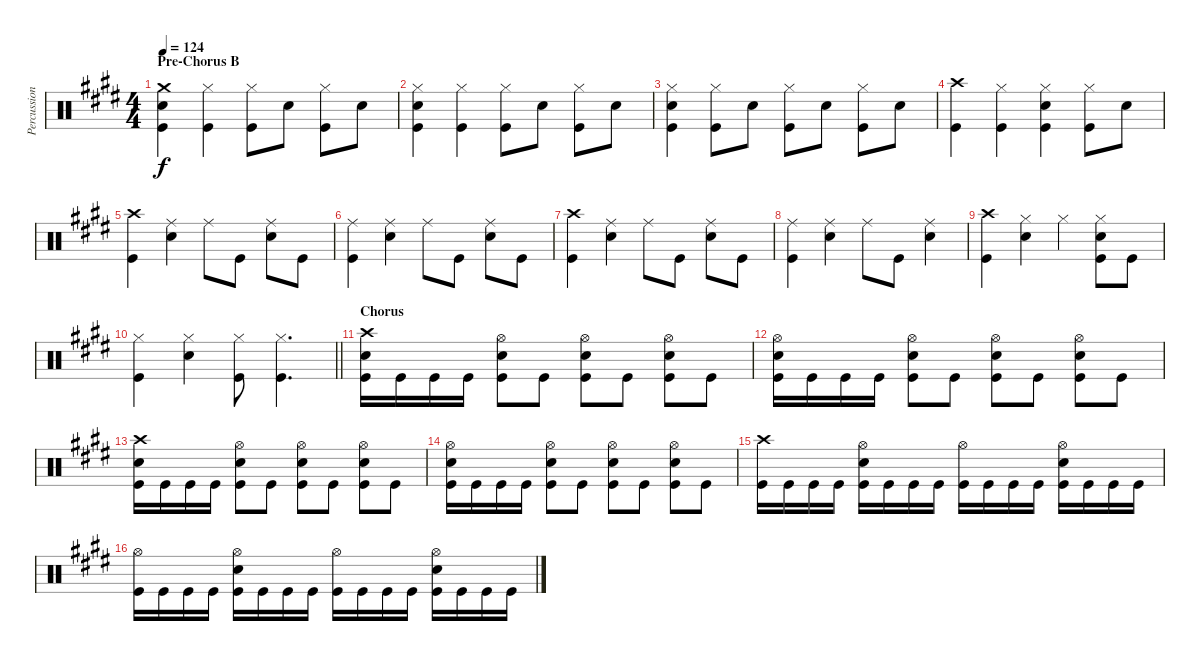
\track ("Percussion" "Percussion") {instrument percussion}
\staff {score}
\articulation defaults
\ts (4 4)
\section ("" "Pre-Chorus B")
\tempo 124
\clef neutral
\ks e
("Crash medium (hit)" "Electric Snare (hit)" "Kick (hit)").4{dy f} ("Hi-Hat (closed)" "Kick (hit)").4 ("Hi-Hat (closed)" "Kick (hit)").8 "Electric Snare (hit)".8 ("Hi-Hat (closed)" "Kick (hit)").8 "Electric Snare (hit)".8 |
("Hi-Hat (closed)" "Electric Snare (hit)" "Kick (hit)").4 ("Hi-Hat (closed)" "Kick (hit)").4 ("Hi-Hat (closed)" "Kick (hit)").8 "Electric Snare (hit)".8 ("Hi-Hat (closed)" "Kick (hit)").8 "Electric Snare (hit)".8 |
("Hi-Hat (closed)" "Electric Snare (hit)" "Kick (hit)").4 ("Hi-Hat (closed)" "Kick (hit)").8 "Electric Snare (hit)".8 ("Hi-Hat (closed)" "Kick (hit)").8 "Electric Snare (hit)".8 ("Hi-Hat (closed)" "Kick (hit)").8 "Electric Snare (hit)".8 |
("Crash high (hit)" "Kick (hit)").4 ("Hi-Hat (closed)" "Kick (hit)").4 ("Hi-Hat (closed)" "Electric Snare (hit)" "Kick (hit)").4 ("Hi-Hat (closed)" "Kick (hit)").8 "Electric Snare (hit)".8 |
("Crash high (hit)" "Kick (hit)").4 ("Ride (middle)" "Electric Snare (hit)").4 "Ride (middle)".8 "Kick (hit)".8 ("Ride (middle)" "Electric Snare (hit)").8 "Kick (hit)".8 |
("Ride (middle)" "Kick (hit)").4 ("Ride (middle)" "Electric Snare (hit)").4 "Ride (middle)".8 "Kick (hit)".8 ("Ride (middle)" "Electric Snare (hit)").8 "Kick (hit)".8 |
("Crash high (hit)" "Kick (hit)").4 ("Ride (middle)" "Electric Snare (hit)").4 "Ride (middle)".8 "Kick (hit)".8 ("Ride (middle)" "Electric Snare (hit)").8 "Kick (hit)".8 |
("Ride (middle)" "Kick (hit)").4 ("Ride (middle)" "Electric Snare (hit)").4 "Ride (middle)".8 "Kick (hit)".8 ("Ride (middle)" "Electric Snare (hit)").4 |
("Crash high (hit)" "Kick (hit)").4 ("Hi-Hat (closed)" "Electric Snare (hit)").4 "Hi-Hat (closed)".4 ("Hi-Hat (closed)" "Electric Snare (hit)" "Kick (hit)").8 "Kick (hit)".8 |
\barLineRight lightlight
("Hi-Hat (closed)" "Kick (hit)").4 ("Hi-Hat (closed)" "Electric Snare (hit)").4 ("Hi-Hat (closed)" "Kick (hit)").8 ("Hi-Hat (closed)" "Kick (hit)").4{d} |
\section ("" "Chorus")
("Crash high (hit)" "Electric Snare (hit)" "Kick (hit)").16 "Kick (hit)".16 "Kick (hit)".16 "Kick (hit)".16 ("Hi-Hat (open)" "Electric Snare (hit)" "Kick (hit)").8 "Kick (hit)".8 ("Hi-Hat (open)" "Electric Snare (hit)" "Kick (hit)").8 "Kick (hit)".8 ("Hi-Hat (open)" "Electric Snare (hit)" "Kick (hit)").8 "Kick (hit)".8 |
("Hi-Hat (open)" "Electric Snare (hit)" "Kick (hit)").16 "Kick (hit)".16 "Kick (hit)".16 "Kick (hit)".16 ("Hi-Hat (open)" "Electric Snare (hit)" "Kick (hit)").8 "Kick (hit)".8 ("Hi-Hat (open)" "Electric Snare (hit)" "Kick (hit)").8 "Kick (hit)".8 ("Hi-Hat (open)" "Electric Snare (hit)" "Kick (hit)").8 "Kick (hit)".8 |
("Crash high (hit)" "Electric Snare (hit)" "Kick (hit)").16 "Kick (hit)".16 "Kick (hit)".16 "Kick (hit)".16 ("Hi-Hat (open)" "Electric Snare (hit)" "Kick (hit)").8 "Kick (hit)".8 ("Hi-Hat (open)" "Electric Snare (hit)" "Kick (hit)").8 "Kick (hit)".8 ("Hi-Hat (open)" "Electric Snare (hit)" "Kick (hit)").8 "Kick (hit)".8 |
("Hi-Hat (open)" "Electric Snare (hit)" "Kick (hit)").16 "Kick (hit)".16 "Kick (hit)".16 "Kick (hit)".16 ("Hi-Hat (open)" "Electric Snare (hit)" "Kick (hit)").8 "Kick (hit)".8 ("Hi-Hat (open)" "Electric Snare (hit)" "Kick (hit)").8 "Kick (hit)".8 ("Hi-Hat (open)" "Electric Snare (hit)" "Kick (hit)").8 "Kick (hit)".8 |
("Crash high (hit)" "Kick (hit)").16 "Kick (hit)".16 "Kick (hit)".16 "Kick (hit)".16 ("Hi-Hat (open)" "Electric Snare (hit)" "Kick (hit)").16 "Kick (hit)".16 "Kick (hit)".16 "Kick (hit)".16 ("Hi-Hat (open)" "Kick (hit)").16 "Kick (hit)".16 "Kick (hit)".16 "Kick (hit)".16 ("Hi-Hat (open)" "Electric Snare (hit)" "Kick (hit)").16 "Kick (hit)".16 "Kick (hit)".16 "Kick (hit)".16 |
("Hi-Hat (open)" "Kick (hit)").16 "Kick (hit)".16 "Kick (hit)".16 "Kick (hit)".16 ("Hi-Hat (open)" "Electric Snare (hit)" "Kick (hit)").16 "Kick (hit)".16 "Kick (hit)".16 "Kick (hit)".16 ("Hi-Hat (open)" "Kick (hit)").16 "Kick (hit)".16 "Kick (hit)".16 "Kick (hit)".16 ("Hi-Hat (open)" "Electric Snare (hit)" "Kick (hit)").16 "Kick (hit)".16 "Kick (hit)".16 "Kick (hit)".16
